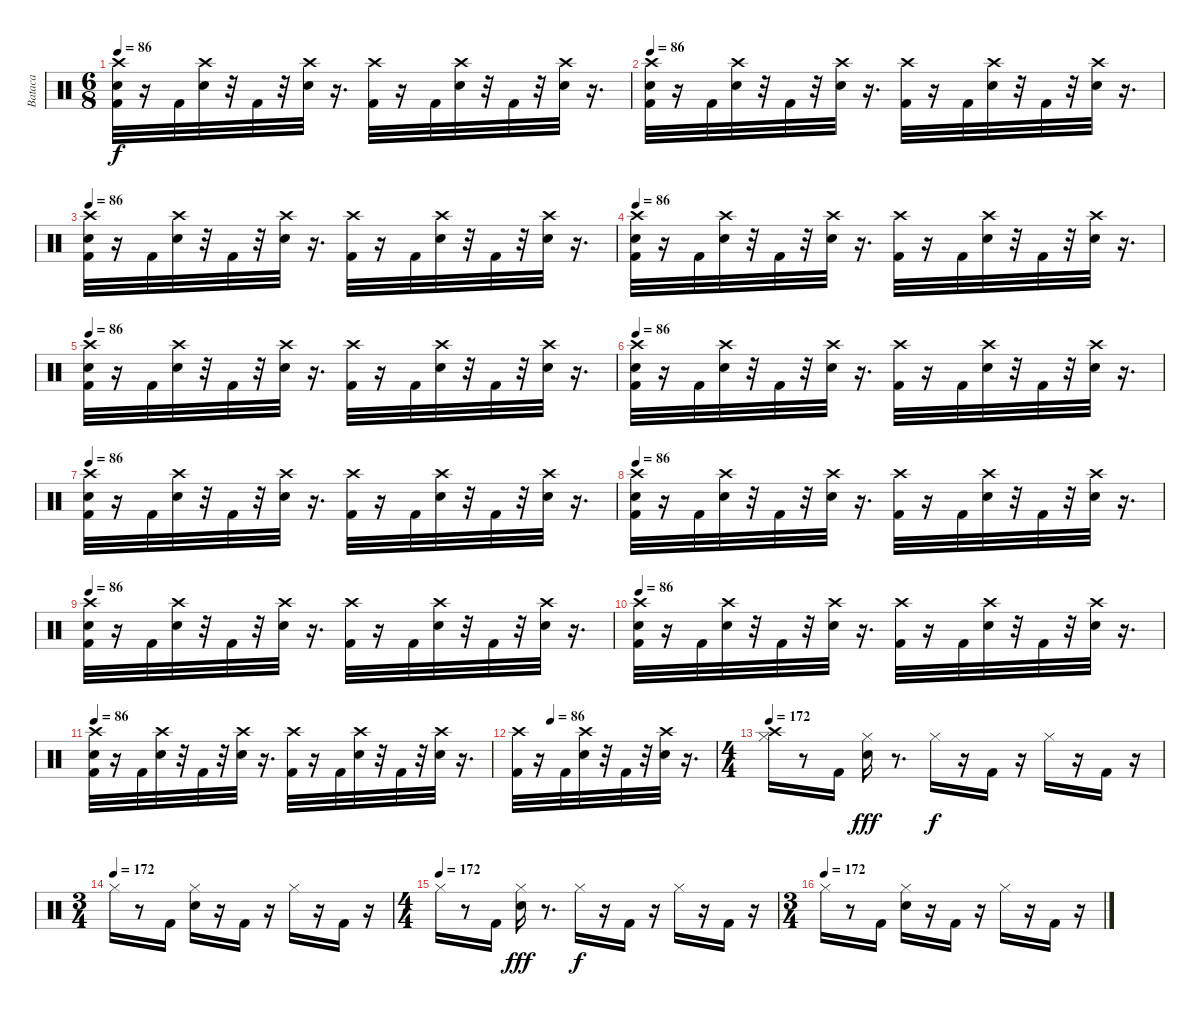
\track ("Bataca" "Bataca") {instrument percussion}
\staff {score}
\articulation defaults
\ts (6 8)
\tempo 86
\clef neutral
\ks c
("Crash high (hit)" "Snare (hit) 2" "Kick (hit) 2").32{dy f} r.16 "Kick (hit) 2".32 ("Crash high (hit)" "Snare (hit) 2").32 r.32 "Kick (hit) 2".32 r.32 ("Crash high (hit)" "Snare (hit) 2").32 r.16{d} ("Crash high (hit)" "Kick (hit) 2").32 r.16 "Kick (hit) 2".32 ("Crash high (hit)" "Snare (hit) 2").32 r.32 "Kick (hit) 2".32 r.32 ("Crash high (hit)" "Snare (hit) 2").32 r.16{d} |
\tempo 86
("Crash high (hit)" "Snare (hit) 2" "Kick (hit) 2").32 r.16 "Kick (hit) 2".32 ("Crash high (hit)" "Snare (hit) 2").32 r.32 "Kick (hit) 2".32 r.32 ("Crash high (hit)" "Snare (hit) 2").32 r.16{d} ("Crash high (hit)" "Kick (hit) 2").32 r.16 "Kick (hit) 2".32 ("Crash high (hit)" "Snare (hit) 2").32 r.32 "Kick (hit) 2".32 r.32 ("Crash high (hit)" "Snare (hit) 2").32 r.16{d} |
\tempo 86
("Crash high (hit)" "Snare (hit) 2" "Kick (hit) 2").32 r.16 "Kick (hit) 2".32 ("Crash high (hit)" "Snare (hit) 2").32 r.32 "Kick (hit) 2".32 r.32 ("Crash high (hit)" "Snare (hit) 2").32 r.16{d} ("Crash high (hit)" "Kick (hit) 2").32 r.16 "Kick (hit) 2".32 ("Crash high (hit)" "Snare (hit) 2").32 r.32 "Kick (hit) 2".32 r.32 ("Crash high (hit)" "Snare (hit) 2").32 r.16{d} |
\tempo 86
("Crash high (hit)" "Snare (hit) 2" "Kick (hit) 2").32 r.16 "Kick (hit) 2".32 ("Crash high (hit)" "Snare (hit) 2").32 r.32 "Kick (hit) 2".32 r.32 ("Crash high (hit)" "Snare (hit) 2").32 r.16{d} ("Crash high (hit)" "Kick (hit) 2").32 r.16 "Kick (hit) 2".32 ("Crash high (hit)" "Snare (hit) 2").32 r.32 "Kick (hit) 2".32 r.32 ("Crash high (hit)" "Snare (hit) 2").32 r.16{d} |
\tempo 86
("Crash high (hit)" "Snare (hit) 2" "Kick (hit) 2").32 r.16 "Kick (hit) 2".32 ("Crash high (hit)" "Snare (hit) 2").32 r.32 "Kick (hit) 2".32 r.32 ("Crash high (hit)" "Snare (hit) 2").32 r.16{d} ("Crash high (hit)" "Kick (hit) 2").32 r.16 "Kick (hit) 2".32 ("Crash high (hit)" "Snare (hit) 2").32 r.32 "Kick (hit) 2".32 r.32 ("Crash high (hit)" "Snare (hit) 2").32 r.16{d} |
\tempo 86
("Crash high (hit)" "Snare (hit) 2" "Kick (hit) 2").32 r.16 "Kick (hit) 2".32 ("Crash high (hit)" "Snare (hit) 2").32 r.32 "Kick (hit) 2".32 r.32 ("Crash high (hit)" "Snare (hit) 2").32 r.16{d} ("Crash high (hit)" "Kick (hit) 2").32 r.16 "Kick (hit) 2".32 ("Crash high (hit)" "Snare (hit) 2").32 r.32 "Kick (hit) 2".32 r.32 ("Crash high (hit)" "Snare (hit) 2").32 r.16{d} |
\tempo 86
("Crash high (hit)" "Snare (hit) 2" "Kick (hit) 2").32 r.16 "Kick (hit) 2".32 ("Crash high (hit)" "Snare (hit) 2").32 r.32 "Kick (hit) 2".32 r.32 ("Crash high (hit)" "Snare (hit) 2").32 r.16{d} ("Crash high (hit)" "Kick (hit) 2").32 r.16 "Kick (hit) 2".32 ("Crash high (hit)" "Snare (hit) 2").32 r.32 "Kick (hit) 2".32 r.32 ("Crash high (hit)" "Snare (hit) 2").32 r.16{d} |
\tempo 86
("Crash high (hit)" "Snare (hit) 2" "Kick (hit) 2").32 r.16 "Kick (hit) 2".32 ("Crash high (hit)" "Snare (hit) 2").32 r.32 "Kick (hit) 2".32 r.32 ("Crash high (hit)" "Snare (hit) 2").32 r.16{d} ("Crash high (hit)" "Kick (hit) 2").32 r.16 "Kick (hit) 2".32 ("Crash high (hit)" "Snare (hit) 2").32 r.32 "Kick (hit) 2".32 r.32 ("Crash high (hit)" "Snare (hit) 2").32 r.16{d} |
\tempo 86
("Crash high (hit)" "Snare (hit) 2" "Kick (hit) 2").32 r.16 "Kick (hit) 2".32 ("Crash high (hit)" "Snare (hit) 2").32 r.32 "Kick (hit) 2".32 r.32 ("Crash high (hit)" "Snare (hit) 2").32 r.16{d} ("Crash high (hit)" "Kick (hit) 2").32 r.16 "Kick (hit) 2".32 ("Crash high (hit)" "Snare (hit) 2").32 r.32 "Kick (hit) 2".32 r.32 ("Crash high (hit)" "Snare (hit) 2").32 r.16{d} |
\tempo 86
("Crash high (hit)" "Snare (hit) 2" "Kick (hit) 2").32 r.16 "Kick (hit) 2".32 ("Crash high (hit)" "Snare (hit) 2").32 r.32 "Kick (hit) 2".32 r.32 ("Crash high (hit)" "Snare (hit) 2").32 r.16{d} ("Crash high (hit)" "Kick (hit) 2").32 r.16 "Kick (hit) 2".32 ("Crash high (hit)" "Snare (hit) 2").32 r.32 "Kick (hit) 2".32 r.32 ("Crash high (hit)" "Snare (hit) 2").32 r.16{d} |
\tempo 86
("Crash high (hit)" "Snare (hit) 2" "Kick (hit) 2").32 r.16 "Kick (hit) 2".32 ("Crash high (hit)" "Snare (hit) 2").32 r.32 "Kick (hit) 2".32 r.32 ("Crash high (hit)" "Snare (hit) 2").32 r.16{d} ("Crash high (hit)" "Kick (hit) 2").32 r.16 "Kick (hit) 2".32 ("Crash high (hit)" "Snare (hit) 2").32 r.32 "Kick (hit) 2".32 r.32 ("Crash high (hit)" "Snare (hit) 2").32 r.16{d} |
\tempo (86 0.16666666666666666)
("Crash high (hit)" "Kick (hit) 2").32 r.16 "Kick (hit) 2".32 ("Crash high (hit)" "Snare (hit) 2").32 r.32 "Kick (hit) 2".32 r.32 ("Crash high (hit)" "Snare (hit) 2").32 r.16{d} |
\ts (4 4)
\tempo 172
("Crash high (hit)" "Hi-Hat (closed)").16 r.8 "Kick (hit) 2".16 ("Hi-Hat (closed)" "Snare (hit) 2").16{dy fff} r.8{d} "Hi-Hat (closed)".16{dy f} r.16 "Kick (hit) 2".16 r.16 "Hi-Hat (closed)".16 r.16 "Kick (hit) 2".16 r.16 |
\ts (3 4)
\tempo (172)
"Hi-Hat (closed)".16 r.8 "Kick (hit) 2".16 ("Hi-Hat (closed)" "Snare (hit) 2").16 r.16 "Kick (hit) 2".16 r.16 "Hi-Hat (closed)".16 r.16 "Kick (hit) 2".16 r.16 |
\ts (4 4)
\tempo (172)
"Hi-Hat (closed)".16 r.8 "Kick (hit) 2".16 ("Hi-Hat (closed)" "Snare (hit) 2").16{dy fff} r.8{d} "Hi-Hat (closed)".16{dy f} r.16 "Kick (hit) 2".16 r.16 "Hi-Hat (closed)".16 r.16 "Kick (hit) 2".16 r.16 |
\ts (3 4)
\tempo (172)
"Hi-Hat (closed)".16 r.8 "Kick (hit) 2".16 ("Hi-Hat (closed)" "Snare (hit) 2").16 r.16 "Kick (hit) 2".16 r.16 "Hi-Hat (closed)".16 r.16 "Kick (hit) 2".16 r.16
